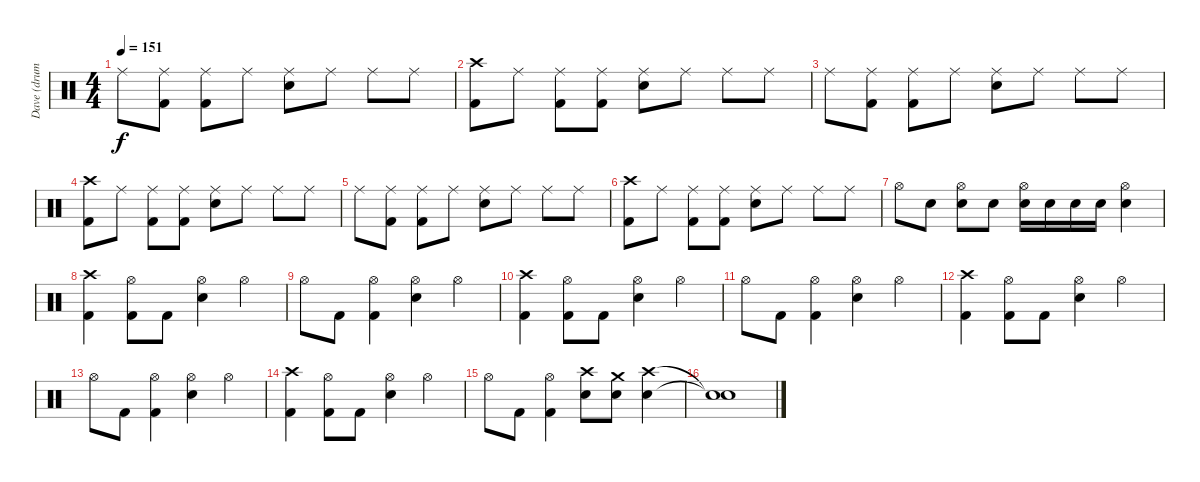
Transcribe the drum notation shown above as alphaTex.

\track ("Dave (drums)" "Dave (drum") {instrument percussion}
\staff {score}
\articulation defaults
\ts (4 4)
\tempo 151
\clef neutral
\ks c "Ride (middle)".8{dy f}
("Kick (hit) 2" "Ride (middle)").8 ("Kick (hit) 2" "Ride (middle)").8 "Ride (middle)".8 ("Electric Snare (hit)" "Ride (middle)").8 "Ride (middle)".8 "Ride (middle)".8 "Ride (middle)".8 |
("Crash high (hit)" "Kick (hit) 2").8 "Ride (middle)".8 ("Kick (hit) 2" "Ride (middle)").8 ("Kick (hit) 2" "Ride (middle)").8 ("Electric Snare (hit)" "Ride (middle)").8 "Ride (middle)".8 "Ride (middle)".8 "Ride (middle)".8 |
"Ride (middle)".8 ("Kick (hit) 2" "Ride (middle)").8 ("Kick (hit) 2" "Ride (middle)").8 "Ride (middle)".8 ("Electric Snare (hit)" "Ride (middle)").8 "Ride (middle)".8 "Ride (middle)".8 "Ride (middle)".8 |
("Crash high (hit)" "Kick (hit) 2").8 "Ride (middle)".8 ("Kick (hit) 2" "Ride (middle)").8 ("Kick (hit) 2" "Ride (middle)").8 ("Electric Snare (hit)" "Ride (middle)").8 "Ride (middle)".8 "Ride (middle)".8 "Ride (middle)".8 |
"Ride (middle)".8 ("Kick (hit) 2" "Ride (middle)").8 ("Kick (hit) 2" "Ride (middle)").8 "Ride (middle)".8 ("Electric Snare (hit)" "Ride (middle)").8 "Ride (middle)".8 "Ride (middle)".8 "Ride (middle)".8 |
("Crash high (hit)" "Kick (hit) 2").8 "Ride (middle)".8 ("Kick (hit) 2" "Ride (middle)").8 ("Kick (hit) 2" "Ride (middle)").8 ("Electric Snare (hit)" "Ride (middle)").8 "Ride (middle)".8 "Ride (middle)".8 "Ride (middle)".8 |
"Hi-Hat (open)".8 "Electric Snare (hit)".8 ("Hi-Hat (open)" "Electric Snare (hit)").8 "Electric Snare (hit)".8 ("Hi-Hat (open)" "Electric Snare (hit)").16 "Electric Snare (hit)".16 "Electric Snare (hit)".16 "Electric Snare (hit)".16 ("Hi-Hat (open)" "Electric Snare (hit)").4 |
("Crash high (hit)" "Kick (hit) 2").4 ("Hi-Hat (open)" "Kick (hit) 2").8 "Kick (hit) 2".8 ("Hi-Hat (open)" "Electric Snare (hit)").4 "Hi-Hat (open)".4 |
"Hi-Hat (open)".8 "Kick (hit) 2".8 ("Hi-Hat (open)" "Kick (hit) 2").4 ("Hi-Hat (open)" "Electric Snare (hit)").4 "Hi-Hat (open)".4 |
("Crash high (hit)" "Kick (hit) 2").4 ("Hi-Hat (open)" "Kick (hit) 2").8 "Kick (hit) 2".8 ("Hi-Hat (open)" "Electric Snare (hit)").4 "Hi-Hat (open)".4 |
"Hi-Hat (open)".8 "Kick (hit) 2".8 ("Hi-Hat (open)" "Kick (hit) 2").4 ("Hi-Hat (open)" "Electric Snare (hit)").4 "Hi-Hat (open)".4 |
("Crash high (hit)" "Kick (hit) 2").4 ("Hi-Hat (open)" "Kick (hit) 2").8 "Kick (hit) 2".8 ("Hi-Hat (open)" "Electric Snare (hit)").4 "Hi-Hat (open)".4 |
"Hi-Hat (open)".8 "Kick (hit) 2".8 ("Hi-Hat (open)" "Kick (hit) 2").4 ("Hi-Hat (open)" "Electric Snare (hit)").4 "Hi-Hat (open)".4 |
("Crash high (hit)" "Kick (hit) 2").4 ("Hi-Hat (open)" "Kick (hit) 2").8 "Kick (hit) 2".8 ("Hi-Hat (open)" "Electric Snare (hit)").4 "Hi-Hat (open)".4 |
"Hi-Hat (open)".8 "Kick (hit) 2".8 ("Hi-Hat (open)" "Kick (hit) 2").4 ("Crash high (hit)" "Electric Snare (hit)").8 ("Crash medium (hit)" "Electric Snare (hit)").8 ("Crash high (hit)" "Electric Snare (hit)").4 |
("Snare (hit)"{t} "Snare (hit)"{t}).1
